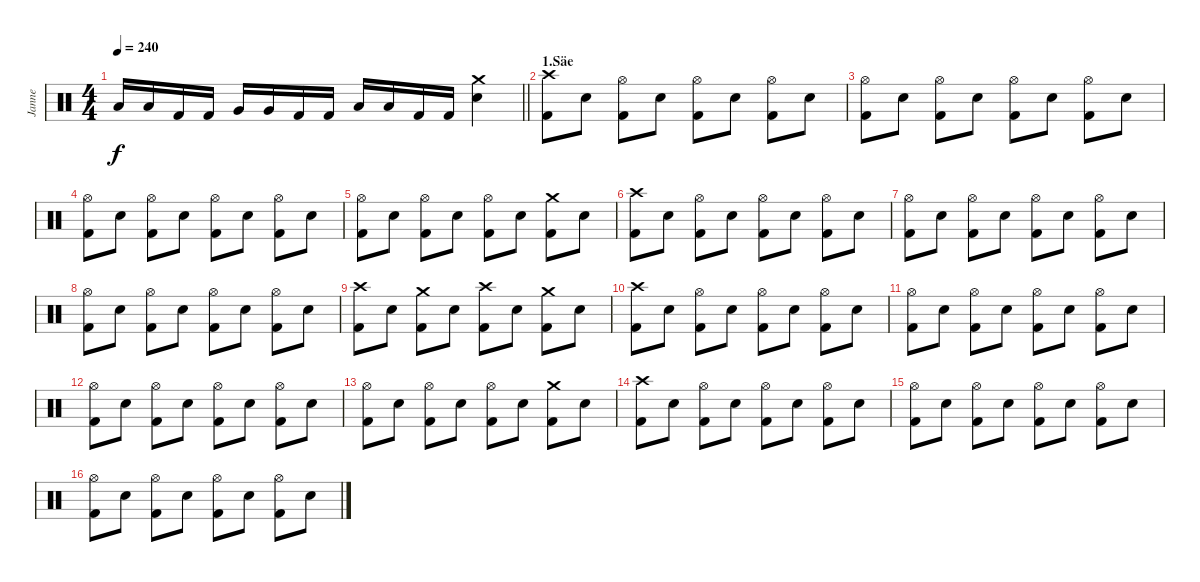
\track ("Janne" "Janne") {instrument percussion}
\staff {score}
\articulation defaults
\ts (4 4)
\tempo 240
\clef neutral
\barLineRight lightlight
\ks c "Low Tom (hit)".16{dy f} "Low Tom (hit)".16 "Kick (hit) 2".16 "Kick (hit) 2".16 "Very Low Tom (hit)".16 "Very Low Tom (hit)".16 "Kick (hit) 2".16 "Kick (hit) 2".16 "Low Floor Tom (hit)".16 "Low Floor Tom (hit)".16 "Kick (hit) 2".16 "Kick (hit) 2".16
("Crash medium (hit)" "Electric Snare (hit)").4 |
\section ("" "1.Säe")
("Crash high (hit)" "Kick (hit) 2").8 "Electric Snare (hit)".8 ("Hi-Hat (open)" "Kick (hit) 2").8 "Electric Snare (hit)".8 ("Hi-Hat (open)" "Kick (hit) 2").8 "Electric Snare (hit)".8 ("Hi-Hat (open)" "Kick (hit) 2").8 "Electric Snare (hit)".8 |
("Hi-Hat (open)" "Kick (hit) 2").8 "Electric Snare (hit)".8 ("Hi-Hat (open)" "Kick (hit) 2").8 "Electric Snare (hit)".8 ("Hi-Hat (open)" "Kick (hit) 2").8 "Electric Snare (hit)".8 ("Hi-Hat (open)" "Kick (hit) 2").8 "Electric Snare (hit)".8 |
("Hi-Hat (open)" "Kick (hit) 2").8 "Electric Snare (hit)".8 ("Hi-Hat (open)" "Kick (hit) 2").8 "Electric Snare (hit)".8 ("Hi-Hat (open)" "Kick (hit) 2").8 "Electric Snare (hit)".8 ("Hi-Hat (open)" "Kick (hit) 2").8 "Electric Snare (hit)".8 |
("Hi-Hat (open)" "Kick (hit) 2").8 "Electric Snare (hit)".8 ("Hi-Hat (open)" "Kick (hit) 2").8 "Electric Snare (hit)".8 ("Hi-Hat (open)" "Kick (hit) 2").8 "Electric Snare (hit)".8 ("Crash medium (hit)" "Kick (hit) 2").8 "Electric Snare (hit)".8 |
("Crash high (hit)" "Kick (hit) 2").8 "Electric Snare (hit)".8 ("Hi-Hat (open)" "Kick (hit) 2").8 "Electric Snare (hit)".8 ("Hi-Hat (open)" "Kick (hit) 2").8 "Electric Snare (hit)".8 ("Hi-Hat (open)" "Kick (hit) 2").8 "Electric Snare (hit)".8 |
("Hi-Hat (open)" "Kick (hit) 2").8 "Electric Snare (hit)".8 ("Hi-Hat (open)" "Kick (hit) 2").8 "Electric Snare (hit)".8 ("Hi-Hat (open)" "Kick (hit) 2").8 "Electric Snare (hit)".8 ("Hi-Hat (open)" "Kick (hit) 2").8 "Electric Snare (hit)".8 |
("Hi-Hat (open)" "Kick (hit) 2").8 "Electric Snare (hit)".8 ("Hi-Hat (open)" "Kick (hit) 2").8 "Electric Snare (hit)".8 ("Hi-Hat (open)" "Kick (hit) 2").8 "Electric Snare (hit)".8 ("Hi-Hat (open)" "Kick (hit) 2").8 "Electric Snare (hit)".8 |
("Crash high (hit)" "Kick (hit) 2").8 "Electric Snare (hit)".8 ("Crash medium (hit)" "Kick (hit) 2").8 "Electric Snare (hit)".8 ("Crash high (hit)" "Kick (hit) 2").8 "Electric Snare (hit)".8 ("Crash medium (hit)" "Kick (hit) 2").8 "Electric Snare (hit)".8 |
("Crash high (hit)" "Kick (hit) 2").8 "Electric Snare (hit)".8 ("Hi-Hat (open)" "Kick (hit) 2").8 "Electric Snare (hit)".8 ("Hi-Hat (open)" "Kick (hit) 2").8 "Electric Snare (hit)".8 ("Hi-Hat (open)" "Kick (hit) 2").8 "Electric Snare (hit)".8 |
("Hi-Hat (open)" "Kick (hit) 2").8 "Electric Snare (hit)".8 ("Hi-Hat (open)" "Kick (hit) 2").8 "Electric Snare (hit)".8 ("Hi-Hat (open)" "Kick (hit) 2").8 "Electric Snare (hit)".8 ("Hi-Hat (open)" "Kick (hit) 2").8 "Electric Snare (hit)".8 |
("Hi-Hat (open)" "Kick (hit) 2").8 "Electric Snare (hit)".8 ("Hi-Hat (open)" "Kick (hit) 2").8 "Electric Snare (hit)".8 ("Hi-Hat (open)" "Kick (hit) 2").8 "Electric Snare (hit)".8 ("Hi-Hat (open)" "Kick (hit) 2").8 "Electric Snare (hit)".8 |
("Hi-Hat (open)" "Kick (hit) 2").8 "Electric Snare (hit)".8 ("Hi-Hat (open)" "Kick (hit) 2").8 "Electric Snare (hit)".8 ("Hi-Hat (open)" "Kick (hit) 2").8 "Electric Snare (hit)".8 ("Crash medium (hit)" "Kick (hit) 2").8 "Electric Snare (hit)".8 |
("Crash high (hit)" "Kick (hit) 2").8 "Electric Snare (hit)".8 ("Hi-Hat (open)" "Kick (hit) 2").8 "Electric Snare (hit)".8 ("Hi-Hat (open)" "Kick (hit) 2").8 "Electric Snare (hit)".8 ("Hi-Hat (open)" "Kick (hit) 2").8 "Electric Snare (hit)".8 |
("Hi-Hat (open)" "Kick (hit) 2").8 "Electric Snare (hit)".8 ("Hi-Hat (open)" "Kick (hit) 2").8 "Electric Snare (hit)".8 ("Hi-Hat (open)" "Kick (hit) 2").8 "Electric Snare (hit)".8 ("Hi-Hat (open)" "Kick (hit) 2").8 "Electric Snare (hit)".8 |
("Hi-Hat (open)" "Kick (hit) 2").8 "Electric Snare (hit)".8 ("Hi-Hat (open)" "Kick (hit) 2").8 "Electric Snare (hit)".8 ("Hi-Hat (open)" "Kick (hit) 2").8 "Electric Snare (hit)".8 ("Hi-Hat (open)" "Kick (hit) 2").8 "Electric Snare (hit)".8
